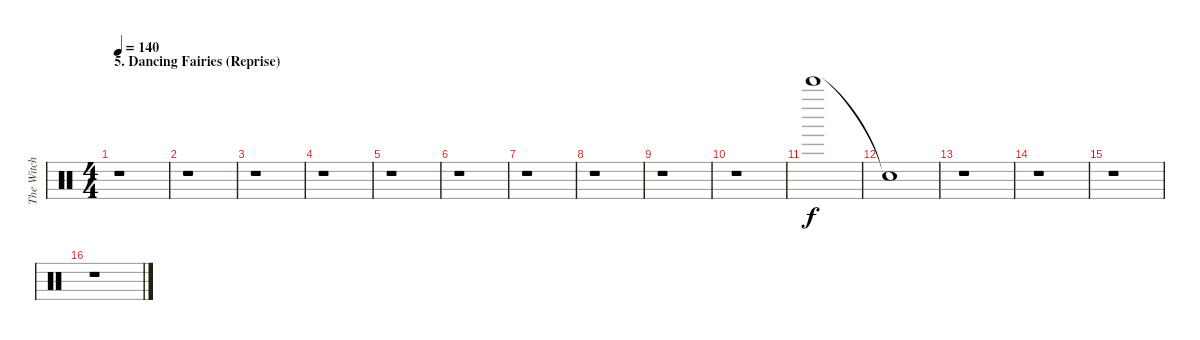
\track ("The Witch" "The Witch") {instrument percussion}
\staff {score}
\articulation defaults
\ts (4 4)
\section ("" "5. Dancing Fairies (Reprise)")
\tempo 140
\clef neutral
\ks c
r.1{dy f} |
r.1 |
r.1 |
r.1 |
r.1 |
r.1 |
r.1 |
r.1 |
r.1 |
r.1 |
"Bell Tree (hit)".1 |
"Snare (hit)"{t}.1 |
r.1 |
r.1 |
r.1 |
r.1
